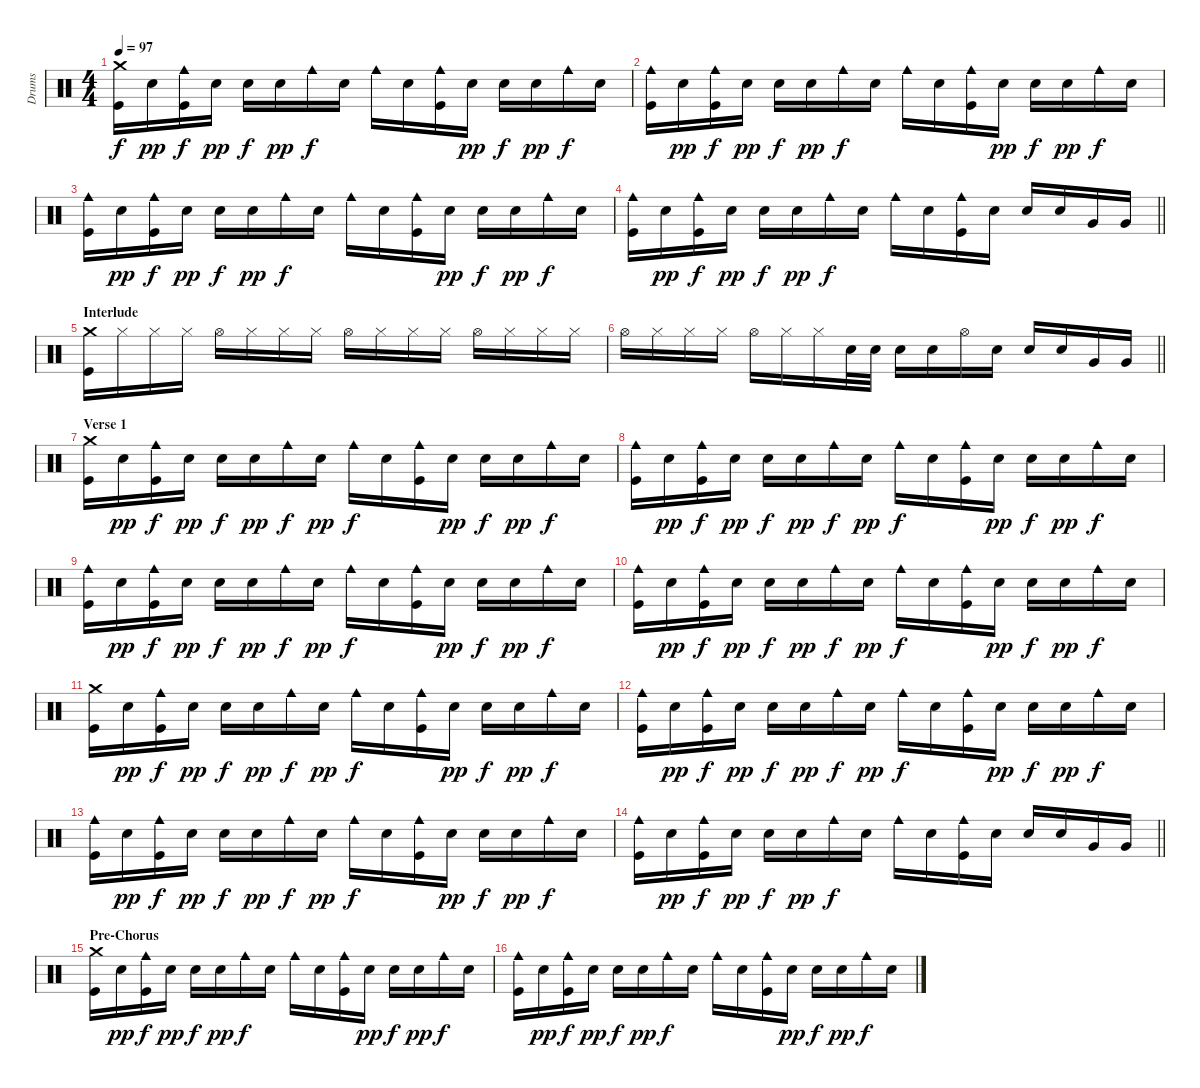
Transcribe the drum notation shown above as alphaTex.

\track ("Drums" "Drums") {instrument percussion}
\staff {score}
\articulation defaults
\ts (4 4)
\tempo 97
\clef neutral
\ks c
("Crash medium (hit)" "Kick (hit)").16{dy f} "Electric Snare (hit)".16{dy pp} ("Cowbell medium (hit)" "Kick (hit)").16{dy f} "Electric Snare (hit)".16{dy pp} "Electric Snare (hit)".16{dy f} "Electric Snare (hit)".16{dy pp} "Cowbell medium (hit)".16{dy f} "Electric Snare (hit)".16 "Cowbell medium (hit)".16 "Electric Snare (hit)".16 ("Cowbell medium (hit)" "Kick (hit)").16 "Electric Snare (hit)".16{dy pp} "Electric Snare (hit)".16{dy f} "Electric Snare (hit)".16{dy pp} "Cowbell medium (hit)".16{dy f} "Electric Snare (hit)".16 |
("Cowbell medium (hit)" "Kick (hit)").16 "Electric Snare (hit)".16{dy pp} ("Cowbell medium (hit)" "Kick (hit)").16{dy f} "Electric Snare (hit)".16{dy pp} "Electric Snare (hit)".16{dy f} "Electric Snare (hit)".16{dy pp} "Cowbell medium (hit)".16{dy f} "Electric Snare (hit)".16 "Cowbell medium (hit)".16 "Electric Snare (hit)".16 ("Cowbell medium (hit)" "Kick (hit)").16 "Electric Snare (hit)".16{dy pp} "Electric Snare (hit)".16{dy f} "Electric Snare (hit)".16{dy pp} "Cowbell medium (hit)".16{dy f} "Electric Snare (hit)".16 |
("Cowbell medium (hit)" "Kick (hit)").16 "Electric Snare (hit)".16{dy pp} ("Cowbell medium (hit)" "Kick (hit)").16{dy f} "Electric Snare (hit)".16{dy pp} "Electric Snare (hit)".16{dy f} "Electric Snare (hit)".16{dy pp} "Cowbell medium (hit)".16{dy f} "Electric Snare (hit)".16 "Cowbell medium (hit)".16 "Electric Snare (hit)".16 ("Cowbell medium (hit)" "Kick (hit)").16 "Electric Snare (hit)".16{dy pp} "Electric Snare (hit)".16{dy f} "Electric Snare (hit)".16{dy pp} "Cowbell medium (hit)".16{dy f} "Electric Snare (hit)".16 |
\barLineRight lightlight
("Cowbell medium (hit)" "Kick (hit)").16 "Electric Snare (hit)".16{dy pp} ("Cowbell medium (hit)" "Kick (hit)").16{dy f} "Electric Snare (hit)".16{dy pp} "Electric Snare (hit)".16{dy f} "Electric Snare (hit)".16{dy pp} "Cowbell medium (hit)".16{dy f} "Electric Snare (hit)".16 "Cowbell medium (hit)".16 "Electric Snare (hit)".16 ("Cowbell medium (hit)" "Kick (hit)").16 "Electric Snare (hit)".16 "Electric Snare (hit)".16 "Electric Snare (hit)".16 "Very Low Tom (hit)".16 "Very Low Tom (hit)".16 |
\section ("" "Interlude")
("Crash medium (hit)" "Kick (hit)").16 "Hi-Hat (closed)".16 "Hi-Hat (closed)".16 "Hi-Hat (closed)".16 "Hi-Hat (open)".16 "Hi-Hat (closed)".16 "Hi-Hat (closed)".16 "Hi-Hat (closed)".16 "Hi-Hat (open)".16 "Hi-Hat (closed)".16 "Hi-Hat (closed)".16 "Hi-Hat (closed)".16 "Hi-Hat (open)".16 "Hi-Hat (closed)".16 "Hi-Hat (closed)".16 "Hi-Hat (closed)".16 |
\barLineRight lightlight "Hi-Hat (open)".16 "Hi-Hat (closed)".16 "Hi-Hat (closed)".16 "Hi-Hat (closed)".16 "Hi-Hat (open)".16 "Hi-Hat (closed)".16 "Hi-Hat (closed)".16 "Electric Snare (hit)".32 "Electric Snare (hit)".32 "Electric Snare (hit)".16 "Electric Snare (hit)".16 "Hi-Hat (open)".16 "Electric Snare (hit)".16 "Electric Snare (hit)".16 "Electric Snare (hit)".16 "Very Low Tom (hit)".16 "Very Low Tom (hit)".16
|
\section ("" "Verse 1")
("Crash medium (hit)" "Kick (hit)").16 "Electric Snare (hit)".16{dy pp} ("Cowbell medium (hit)" "Kick (hit)").16{dy f} "Electric Snare (hit)".16{dy pp} "Electric Snare (hit)".16{dy f} "Electric Snare (hit)".16{dy pp} "Cowbell medium (hit)".16{dy f} "Electric Snare (hit)".16{dy pp} "Cowbell medium (hit)".16{dy f} "Electric Snare (hit)".16 ("Cowbell medium (hit)" "Kick (hit)").16 "Electric Snare (hit)".16{dy pp} "Electric Snare (hit)".16{dy f} "Electric Snare (hit)".16{dy pp} "Cowbell medium (hit)".16{dy f} "Electric Snare (hit)".16 |
("Cowbell medium (hit)" "Kick (hit)").16 "Electric Snare (hit)".16{dy pp} ("Cowbell medium (hit)" "Kick (hit)").16{dy f} "Electric Snare (hit)".16{dy pp} "Electric Snare (hit)".16{dy f} "Electric Snare (hit)".16{dy pp} "Cowbell medium (hit)".16{dy f} "Electric Snare (hit)".16{dy pp} "Cowbell medium (hit)".16{dy f} "Electric Snare (hit)".16 ("Cowbell medium (hit)" "Kick (hit)").16 "Electric Snare (hit)".16{dy pp} "Electric Snare (hit)".16{dy f} "Electric Snare (hit)".16{dy pp} "Cowbell medium (hit)".16{dy f} "Electric Snare (hit)".16 |
("Cowbell medium (hit)" "Kick (hit)").16 "Electric Snare (hit)".16{dy pp} ("Cowbell medium (hit)" "Kick (hit)").16{dy f} "Electric Snare (hit)".16{dy pp} "Electric Snare (hit)".16{dy f} "Electric Snare (hit)".16{dy pp} "Cowbell medium (hit)".16{dy f} "Electric Snare (hit)".16{dy pp} "Cowbell medium (hit)".16{dy f} "Electric Snare (hit)".16 ("Cowbell medium (hit)" "Kick (hit)").16 "Electric Snare (hit)".16{dy pp} "Electric Snare (hit)".16{dy f} "Electric Snare (hit)".16{dy pp} "Cowbell medium (hit)".16{dy f} "Electric Snare (hit)".16 |
("Cowbell medium (hit)" "Kick (hit)").16 "Electric Snare (hit)".16{dy pp} ("Cowbell medium (hit)" "Kick (hit)").16{dy f} "Electric Snare (hit)".16{dy pp} "Electric Snare (hit)".16{dy f} "Electric Snare (hit)".16{dy pp} "Cowbell medium (hit)".16{dy f} "Electric Snare (hit)".16{dy pp} "Cowbell medium (hit)".16{dy f} "Electric Snare (hit)".16 ("Cowbell medium (hit)" "Kick (hit)").16 "Electric Snare (hit)".16{dy pp} "Electric Snare (hit)".16{dy f} "Electric Snare (hit)".16{dy pp} "Cowbell medium (hit)".16{dy f} "Electric Snare (hit)".16 |
("Crash medium (hit)" "Kick (hit)").16 "Electric Snare (hit)".16{dy pp} ("Cowbell medium (hit)" "Kick (hit)").16{dy f} "Electric Snare (hit)".16{dy pp} "Electric Snare (hit)".16{dy f} "Electric Snare (hit)".16{dy pp} "Cowbell medium (hit)".16{dy f} "Electric Snare (hit)".16{dy pp} "Cowbell medium (hit)".16{dy f} "Electric Snare (hit)".16 ("Cowbell medium (hit)" "Kick (hit)").16 "Electric Snare (hit)".16{dy pp} "Electric Snare (hit)".16{dy f} "Electric Snare (hit)".16{dy pp} "Cowbell medium (hit)".16{dy f} "Electric Snare (hit)".16 |
("Cowbell medium (hit)" "Kick (hit)").16 "Electric Snare (hit)".16{dy pp} ("Cowbell medium (hit)" "Kick (hit)").16{dy f} "Electric Snare (hit)".16{dy pp} "Electric Snare (hit)".16{dy f} "Electric Snare (hit)".16{dy pp} "Cowbell medium (hit)".16{dy f} "Electric Snare (hit)".16{dy pp} "Cowbell medium (hit)".16{dy f} "Electric Snare (hit)".16 ("Cowbell medium (hit)" "Kick (hit)").16 "Electric Snare (hit)".16{dy pp} "Electric Snare (hit)".16{dy f} "Electric Snare (hit)".16{dy pp} "Cowbell medium (hit)".16{dy f} "Electric Snare (hit)".16 |
("Cowbell medium (hit)" "Kick (hit)").16 "Electric Snare (hit)".16{dy pp} ("Cowbell medium (hit)" "Kick (hit)").16{dy f} "Electric Snare (hit)".16{dy pp} "Electric Snare (hit)".16{dy f} "Electric Snare (hit)".16{dy pp} "Cowbell medium (hit)".16{dy f} "Electric Snare (hit)".16{dy pp} "Cowbell medium (hit)".16{dy f} "Electric Snare (hit)".16 ("Cowbell medium (hit)" "Kick (hit)").16 "Electric Snare (hit)".16{dy pp} "Electric Snare (hit)".16{dy f} "Electric Snare (hit)".16{dy pp} "Cowbell medium (hit)".16{dy f} "Electric Snare (hit)".16 |
\barLineRight lightlight
("Cowbell medium (hit)" "Kick (hit)").16 "Electric Snare (hit)".16{dy pp} ("Cowbell medium (hit)" "Kick (hit)").16{dy f} "Electric Snare (hit)".16{dy pp} "Electric Snare (hit)".16{dy f} "Electric Snare (hit)".16{dy pp} "Cowbell medium (hit)".16{dy f} "Electric Snare (hit)".16 "Cowbell medium (hit)".16 "Electric Snare (hit)".16 ("Cowbell medium (hit)" "Kick (hit)").16 "Electric Snare (hit)".16 "Electric Snare (hit)".16 "Electric Snare (hit)".16 "Very Low Tom (hit)".16 "Very Low Tom (hit)".16 |
\section ("" "Pre-Chorus")
("Crash medium (hit)" "Kick (hit)").16 "Electric Snare (hit)".16{dy pp} ("Cowbell medium (hit)" "Kick (hit)").16{dy f} "Electric Snare (hit)".16{dy pp} "Electric Snare (hit)".16{dy f} "Electric Snare (hit)".16{dy pp} "Cowbell medium (hit)".16{dy f} "Electric Snare (hit)".16 "Cowbell medium (hit)".16 "Electric Snare (hit)".16 ("Cowbell medium (hit)" "Kick (hit)").16 "Electric Snare (hit)".16{dy pp} "Electric Snare (hit)".16{dy f} "Electric Snare (hit)".16{dy pp} "Cowbell medium (hit)".16{dy f} "Electric Snare (hit)".16 |
("Cowbell medium (hit)" "Kick (hit)").16 "Electric Snare (hit)".16{dy pp} ("Cowbell medium (hit)" "Kick (hit)").16{dy f} "Electric Snare (hit)".16{dy pp} "Electric Snare (hit)".16{dy f} "Electric Snare (hit)".16{dy pp} "Cowbell medium (hit)".16{dy f} "Electric Snare (hit)".16 "Cowbell medium (hit)".16 "Electric Snare (hit)".16 ("Cowbell medium (hit)" "Kick (hit)").16 "Electric Snare (hit)".16{dy pp} "Electric Snare (hit)".16{dy f} "Electric Snare (hit)".16{dy pp} "Cowbell medium (hit)".16{dy f} "Electric Snare (hit)".16
